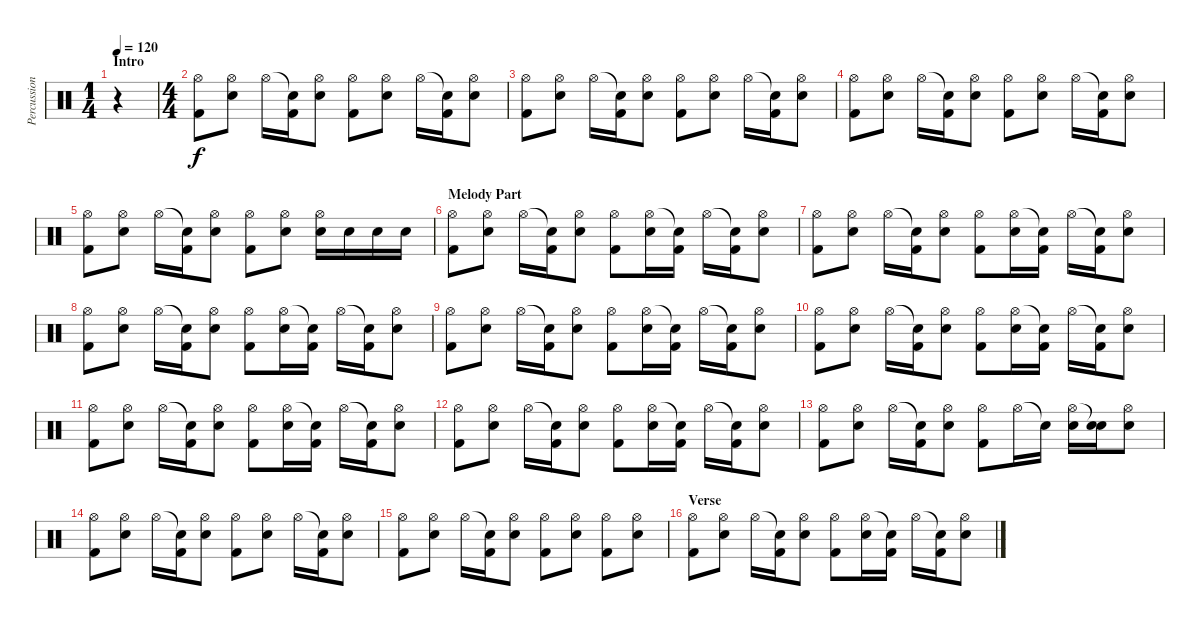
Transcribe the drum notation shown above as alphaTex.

\track ("Percussion" "Percussion") {instrument percussion}
\staff {score}
\articulation defaults
\ts (1 4)
\section ("" "Intro")
\tempo 120
\clef neutral
\ks c
r.4{dy f} |
\ts (4 4)
("Hi-Hat (open)" "Kick (hit) 2").8 ("Hi-Hat (open)" "Electric Snare (hit)").8 "Hi-Hat (open)".16 ("Snare (hit)"{t} "Kick (hit) 2").16 ("Hi-Hat (open)" "Electric Snare (hit)").8 ("Hi-Hat (open)" "Kick (hit) 2").8 ("Hi-Hat (open)" "Electric Snare (hit)").8 "Hi-Hat (open)".16 ("Snare (hit)"{t} "Kick (hit) 2").16 ("Hi-Hat (open)" "Electric Snare (hit)").8 |
("Hi-Hat (open)" "Kick (hit) 2").8 ("Hi-Hat (open)" "Electric Snare (hit)").8 "Hi-Hat (open)".16 ("Snare (hit)"{t} "Kick (hit) 2").16 ("Hi-Hat (open)" "Electric Snare (hit)").8 ("Hi-Hat (open)" "Kick (hit) 2").8 ("Hi-Hat (open)" "Electric Snare (hit)").8 "Hi-Hat (open)".16 ("Snare (hit)"{t} "Kick (hit) 2").16 ("Hi-Hat (open)" "Electric Snare (hit)").8 |
("Hi-Hat (open)" "Kick (hit) 2").8 ("Hi-Hat (open)" "Electric Snare (hit)").8 "Hi-Hat (open)".16 ("Snare (hit)"{t} "Kick (hit) 2").16 ("Hi-Hat (open)" "Electric Snare (hit)").8 ("Hi-Hat (open)" "Kick (hit) 2").8 ("Hi-Hat (open)" "Electric Snare (hit)").8 "Hi-Hat (open)".16 ("Snare (hit)"{t} "Kick (hit) 2").16 ("Hi-Hat (open)" "Electric Snare (hit)").8 |
("Hi-Hat (open)" "Kick (hit) 2").8 ("Hi-Hat (open)" "Electric Snare (hit)").8 "Hi-Hat (open)".16 ("Snare (hit)"{t} "Kick (hit) 2").16 ("Hi-Hat (open)" "Electric Snare (hit)").8 ("Hi-Hat (open)" "Kick (hit) 2").8 ("Hi-Hat (open)" "Electric Snare (hit)").8 ("Hi-Hat (open)" "Electric Snare (hit)").16 "Electric Snare (hit)".16 "Electric Snare (hit)".16 "Electric Snare (hit)".16 |
\section ("" "Melody Part")
("Hi-Hat (open)" "Kick (hit) 2").8 ("Hi-Hat (open)" "Electric Snare (hit)").8 "Hi-Hat (open)".16 ("Snare (hit)"{t} "Kick (hit) 2").16 ("Hi-Hat (open)" "Electric Snare (hit)").8 ("Hi-Hat (open)" "Kick (hit) 2").8 ("Hi-Hat (open)" "Electric Snare (hit)").16 ("Snare (hit)"{t} "Kick (hit) 2").16 "Hi-Hat (open)".16 ("Snare (hit)"{t} "Kick (hit) 2").16 ("Hi-Hat (open)" "Electric Snare (hit)").8 |
("Hi-Hat (open)" "Kick (hit) 2").8 ("Hi-Hat (open)" "Electric Snare (hit)").8 "Hi-Hat (open)".16 ("Snare (hit)"{t} "Kick (hit) 2").16 ("Hi-Hat (open)" "Electric Snare (hit)").8 ("Hi-Hat (open)" "Kick (hit) 2").8 ("Hi-Hat (open)" "Electric Snare (hit)").16 ("Snare (hit)"{t} "Kick (hit) 2").16 "Hi-Hat (open)".16 ("Snare (hit)"{t} "Kick (hit) 2").16 ("Hi-Hat (open)" "Electric Snare (hit)").8 |
("Hi-Hat (open)" "Kick (hit) 2").8 ("Hi-Hat (open)" "Electric Snare (hit)").8 "Hi-Hat (open)".16 ("Snare (hit)"{t} "Kick (hit) 2").16 ("Hi-Hat (open)" "Electric Snare (hit)").8 ("Hi-Hat (open)" "Kick (hit) 2").8 ("Hi-Hat (open)" "Electric Snare (hit)").16 ("Snare (hit)"{t} "Kick (hit) 2").16 "Hi-Hat (open)".16 ("Snare (hit)"{t} "Kick (hit) 2").16 ("Hi-Hat (open)" "Electric Snare (hit)").8 |
("Hi-Hat (open)" "Kick (hit) 2").8 ("Hi-Hat (open)" "Electric Snare (hit)").8 "Hi-Hat (open)".16 ("Snare (hit)"{t} "Kick (hit) 2").16 ("Hi-Hat (open)" "Electric Snare (hit)").8 ("Hi-Hat (open)" "Kick (hit) 2").8 ("Hi-Hat (open)" "Electric Snare (hit)").16 ("Snare (hit)"{t} "Kick (hit) 2").16 "Hi-Hat (open)".16 ("Snare (hit)"{t} "Kick (hit) 2").16 ("Hi-Hat (open)" "Electric Snare (hit)").8 |
("Hi-Hat (open)" "Kick (hit) 2").8 ("Hi-Hat (open)" "Electric Snare (hit)").8 "Hi-Hat (open)".16 ("Snare (hit)"{t} "Kick (hit) 2").16 ("Hi-Hat (open)" "Electric Snare (hit)").8 ("Hi-Hat (open)" "Kick (hit) 2").8 ("Hi-Hat (open)" "Electric Snare (hit)").16 ("Snare (hit)"{t} "Kick (hit) 2").16 "Hi-Hat (open)".16 ("Snare (hit)"{t} "Kick (hit) 2").16 ("Hi-Hat (open)" "Electric Snare (hit)").8 |
("Hi-Hat (open)" "Kick (hit) 2").8 ("Hi-Hat (open)" "Electric Snare (hit)").8 "Hi-Hat (open)".16 ("Snare (hit)"{t} "Kick (hit) 2").16 ("Hi-Hat (open)" "Electric Snare (hit)").8 ("Hi-Hat (open)" "Kick (hit) 2").8 ("Hi-Hat (open)" "Electric Snare (hit)").16 ("Snare (hit)"{t} "Kick (hit) 2").16 "Hi-Hat (open)".16 ("Snare (hit)"{t} "Kick (hit) 2").16 ("Hi-Hat (open)" "Electric Snare (hit)").8 |
("Hi-Hat (open)" "Kick (hit) 2").8 ("Hi-Hat (open)" "Electric Snare (hit)").8 "Hi-Hat (open)".16 ("Snare (hit)"{t} "Kick (hit) 2").16 ("Hi-Hat (open)" "Electric Snare (hit)").8 ("Hi-Hat (open)" "Kick (hit) 2").8 ("Hi-Hat (open)" "Electric Snare (hit)").16 ("Snare (hit)"{t} "Kick (hit) 2").16 "Hi-Hat (open)".16 ("Snare (hit)"{t} "Kick (hit) 2").16 ("Hi-Hat (open)" "Electric Snare (hit)").8 |
("Hi-Hat (open)" "Kick (hit) 2").8 ("Hi-Hat (open)" "Electric Snare (hit)").8 "Hi-Hat (open)".16 ("Snare (hit)"{t} "Kick (hit) 2").16 ("Hi-Hat (open)" "Electric Snare (hit)").8 ("Hi-Hat (open)" "Kick (hit) 2").8 "Hi-Hat (open)".16 "Snare (hit)"{t}.16 ("Hi-Hat (open)" "Electric Snare (hit)").16 ("Snare (hit)"{t} "Electric Snare (hit)").16 ("Hi-Hat (open)" "Electric Snare (hit)").8 |
("Hi-Hat (open)" "Kick (hit) 2").8 ("Hi-Hat (open)" "Electric Snare (hit)").8 "Hi-Hat (open)".16 ("Snare (hit)"{t} "Kick (hit) 2").16 ("Hi-Hat (open)" "Electric Snare (hit)").8 ("Hi-Hat (open)" "Kick (hit) 2").8 ("Hi-Hat (open)" "Electric Snare (hit)").8 "Hi-Hat (open)".16 ("Snare (hit)"{t} "Kick (hit) 2").16 ("Hi-Hat (open)" "Electric Snare (hit)").8 |
("Hi-Hat (open)" "Kick (hit) 2").8 ("Hi-Hat (open)" "Electric Snare (hit)").8 "Hi-Hat (open)".16 ("Snare (hit)"{t} "Kick (hit) 2").16 ("Hi-Hat (open)" "Electric Snare (hit)").8 ("Hi-Hat (open)" "Kick (hit) 2").8 ("Hi-Hat (open)" "Electric Snare (hit)").8 ("Hi-Hat (open)" "Kick (hit) 2").8 ("Hi-Hat (open)" "Electric Snare (hit)").8 |
\section ("" "Verse")
("Hi-Hat (open)" "Kick (hit) 2").8 ("Hi-Hat (open)" "Electric Snare (hit)").8 "Hi-Hat (open)".16 ("Snare (hit)"{t} "Kick (hit) 2").16 ("Hi-Hat (open)" "Electric Snare (hit)").8 ("Hi-Hat (open)" "Kick (hit) 2").8 ("Hi-Hat (open)" "Electric Snare (hit)").16 ("Snare (hit)"{t} "Kick (hit) 2").16 "Hi-Hat (open)".16 ("Snare (hit)"{t} "Kick (hit) 2").16 ("Hi-Hat (open)" "Electric Snare (hit)").8
